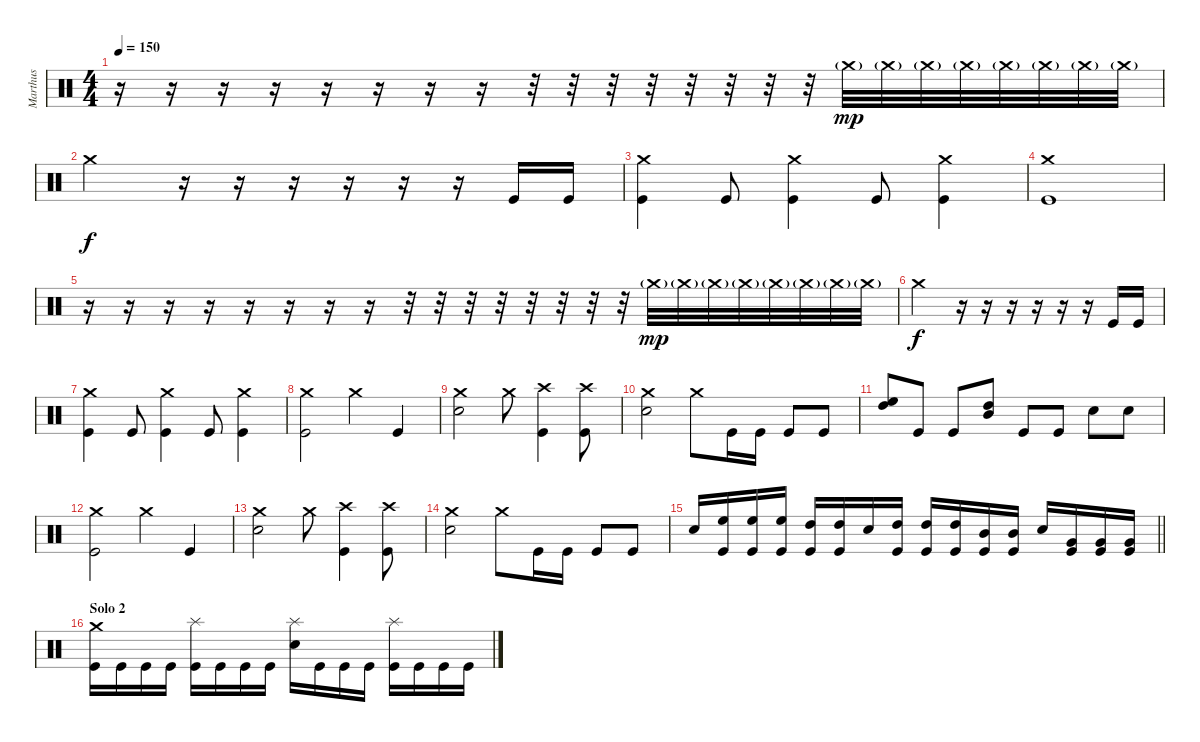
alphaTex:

\track ("Marthus" "Marthus") {instrument percussion}
\staff {score}
\articulation defaults
\ts (4 4)
\tempo 150
\clef neutral
\ks c
r.16{dy f} r.16 r.16 r.16 r.16 r.16 r.16 r.16 r.32 r.32 r.32 r.32 r.32 r.32 r.32 r.32 "Crash medium (hit)"{g}.32{dy mp} "Crash medium (hit)"{g}.32 "Crash medium (hit)"{g}.32 "Crash medium (hit)"{g}.32 "Crash medium (hit)"{g}.32 "Crash medium (hit)"{g}.32 "Crash medium (hit)"{g}.32 "Crash medium (hit)"{g}.32 |
"Crash medium (hit)".2{dy f} r.16 r.16 r.16 r.16 r.16 r.16 "Kick (hit)".16 "Kick (hit)".16 |
("Crash medium (hit)" "Kick (hit)").4 "Kick (hit)".8 ("Crash medium (hit)" "Kick (hit)").4 "Kick (hit)".8 ("Crash medium (hit)" "Kick (hit)").4 |
("Crash medium (hit)" "Kick (hit)").1 |
r.16 r.16 r.16 r.16 r.16 r.16 r.16 r.16 r.32 r.32 r.32 r.32 r.32 r.32 r.32 r.32 "Crash medium (hit)"{g}.32{dy mp} "Crash medium (hit)"{g}.32 "Crash medium (hit)"{g}.32 "Crash medium (hit)"{g}.32 "Crash medium (hit)"{g}.32 "Crash medium (hit)"{g}.32 "Crash medium (hit)"{g}.32 "Crash medium (hit)"{g}.32 |
"Crash medium (hit)".2{dy f} r.16 r.16 r.16 r.16 r.16 r.16 "Kick (hit)".16 "Kick (hit)".16 |
("Crash medium (hit)" "Kick (hit)").4 "Kick (hit)".8 ("Crash medium (hit)" "Kick (hit)").4 "Kick (hit)".8 ("Crash medium (hit)" "Kick (hit)").4 |
("Crash medium (hit)" "Kick (hit)").2 "Crash medium (hit)".4 "Kick (hit)".4 |
("Crash medium (hit)" "Snare (hit) 2").2 "Crash medium (hit)".8 ("Crash high (hit)" "Kick (hit)").4 ("Crash high (hit)" "Kick (hit)").8 |
("Crash medium (hit)" "Snare (hit) 2").2 "Crash medium (hit)".8 "Kick (hit)".16 "Kick (hit)".16 "Kick (hit)".8 "Kick (hit)".8 |
("High Floor Tom (hit)" "High Tom (hit)").8 "Kick (hit)".8 "Kick (hit)".8 ("High Tom (hit)" "Mid Tom (hit)").8 "Kick (hit)".8 "Kick (hit)".8 "Snare (hit) 2".8 "Snare (hit) 2".8 |
("Crash medium (hit)" "Kick (hit)").2 "Crash medium (hit)".4 "Kick (hit)".4 |
("Crash medium (hit)" "Snare (hit) 2").2 "Crash medium (hit)".8 ("Crash high (hit)" "Kick (hit)").4 ("Crash high (hit)" "Kick (hit)").8 |
("Crash medium (hit)" "Snare (hit) 2").2 "Crash medium (hit)".8 "Kick (hit)".16 "Kick (hit)".16 "Kick (hit)".8 "Kick (hit)".8 |
\barLineRight lightlight "Snare (hit) 2".16
("High Floor Tom (hit)" "Kick (hit)").16 ("High Floor Tom (hit)" "Kick (hit)").16 ("High Floor Tom (hit)" "Kick (hit)").16 ("High Tom (hit)" "Kick (hit)").16 ("High Tom (hit)" "Kick (hit)").16 "Snare (hit) 2".16 ("High Tom (hit)" "Kick (hit)").16 ("High Tom (hit)" "Kick (hit)").16 ("High Tom (hit)" "Kick (hit)").16 ("Mid Tom (hit)" "Kick (hit)").16 ("Mid Tom (hit)" "Kick (hit)").16 "Snare (hit) 2".16 ("Very Low Tom (hit)" "Kick (hit)").16 ("Very Low Tom (hit)" "Kick (hit)").16 ("Very Low Tom (hit)" "Kick (hit)").16 |
\section ("" "Solo 2")
("Crash medium (hit)" "Kick (hit)").16 "Kick (hit)".16 "Kick (hit)".16 "Kick (hit)".16 ("Splash (hit)" "Kick (hit)").16 "Kick (hit)".16 "Kick (hit)".16 "Kick (hit)".16 ("Splash (hit)" "Snare (hit) 2").16 "Kick (hit)".16 "Kick (hit)".16 "Kick (hit)".16 ("Splash (hit)" "Kick (hit)").16 "Kick (hit)".16 "Kick (hit)".16 "Kick (hit)".16
